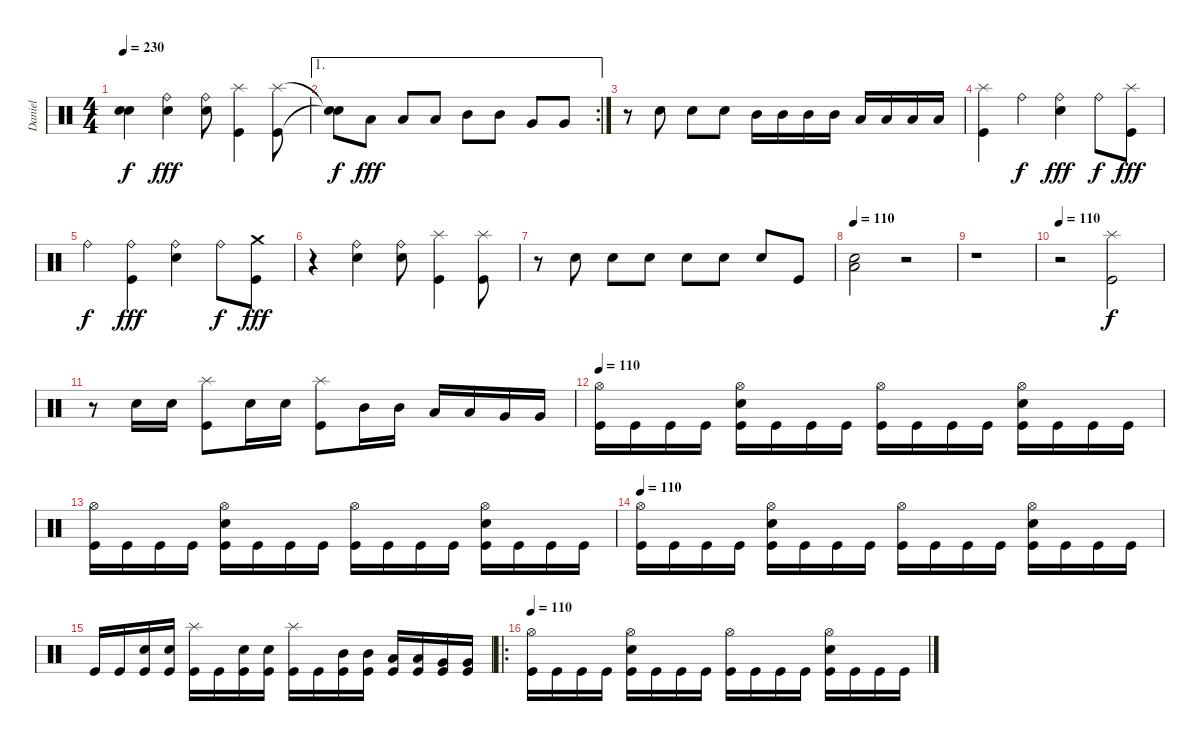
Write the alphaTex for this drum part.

\track ("Daniel" "Daniel") {instrument percussion}
\staff {score}
\articulation defaults
\ts (4 4)
\tempo 230
\clef neutral
\ks c
("Snare (hit)"{t} "Snare (hit)"{t}).4{dy f} ("Electric Snare (hit)" "Ride (bell)").4{dy fff} ("Electric Snare (hit)" "Ride (bell)").8 ("Kick (hit)" "Splash (hit)").4 ("Kick (hit)" "Splash (hit)").8 |
\ae 1
\rc 2
("Snare (hit)"{t} "Snare (hit)"{t}).8{dy f} "Low Tom (hit)".8{dy fff} "Low Tom (hit)".8 "Low Tom (hit)".8 "Mid Tom (hit)".8 "Mid Tom (hit)".8 "Very Low Tom (hit)".8 "Very Low Tom (hit)".8 |
r.8 "Electric Snare (hit)".8 "Electric Snare (hit)".8 "Electric Snare (hit)".8 "Mid Tom (hit)".16 "Mid Tom (hit)".16 "Mid Tom (hit)".16 "Mid Tom (hit)".16 "Low Tom (hit)".16 "Low Tom (hit)".16 "Low Tom (hit)".16 "Low Tom (hit)".16 |
("Kick (hit)" "Splash (hit)").4 "Ride (bell)".4{dy f} ("Electric Snare (hit)" "Ride (bell)").4{dy fff} "Ride (bell)".8{dy f} ("Kick (hit)" "Splash (hit)").8{dy fff} |
"Ride (bell)".4{dy f} ("Kick (hit)" "Ride (bell)").4{dy fff} ("Electric Snare (hit)" "Ride (bell)").4 "Ride (bell)".8{dy f} ("Kick (hit)" "Crash medium (hit)").8{dy fff} |
r.4 ("Electric Snare (hit)" "Ride (bell)").4 ("Electric Snare (hit)" "Ride (bell)").8 ("Kick (hit)" "Splash (hit)").4 ("Kick (hit)" "Splash (hit)").8 |
r.8 "Electric Snare (hit)".8 "Electric Snare (hit)".8 "Electric Snare (hit)".8 "Electric Snare (hit)".8 "Electric Snare (hit)".8 "Electric Snare (hit)".8 "Kick (hit)".8 |
\tempo 110
("Electric Snare (hit)" "Low Floor Tom (hit)").2 r.2 |
r.1 |
\tempo 110
r.2 ("Kick (hit)" "Splash (hit)").2{dy f} |
r.8 "Electric Snare (hit)".16 "Electric Snare (hit)".16 ("Kick (hit)" "Splash (hit)").8 "Electric Snare (hit)".16 "Electric Snare (hit)".16 ("Kick (hit)" "Splash (hit)").8 "Mid Tom (hit)".16 "Mid Tom (hit)".16 "Low Tom (hit)".16 "Low Tom (hit)".16 "Very Low Tom (hit)".16 "Very Low Tom (hit)".16 |
\tempo 110
("Kick (hit)" "Hi-Hat (open)").16 "Kick (hit)".16 "Kick (hit)".16 "Kick (hit)".16 ("Kick (hit)" "Electric Snare (hit)" "Hi-Hat (open)").16 "Kick (hit)".16 "Kick (hit)".16 "Kick (hit)".16 ("Kick (hit)" "Hi-Hat (open)").16 "Kick (hit)".16 "Kick (hit)".16 "Kick (hit)".16 ("Kick (hit)" "Electric Snare (hit)" "Hi-Hat (open)").16 "Kick (hit)".16 "Kick (hit)".16 "Kick (hit)".16 |
("Kick (hit)" "Hi-Hat (open)").16 "Kick (hit)".16 "Kick (hit)".16 "Kick (hit)".16 ("Kick (hit)" "Electric Snare (hit)" "Hi-Hat (open)").16 "Kick (hit)".16 "Kick (hit)".16 "Kick (hit)".16 ("Kick (hit)" "Hi-Hat (open)").16 "Kick (hit)".16 "Kick (hit)".16 "Kick (hit)".16 ("Kick (hit)" "Electric Snare (hit)" "Hi-Hat (open)").16 "Kick (hit)".16 "Kick (hit)".16 "Kick (hit)".16 |
\tempo 110
("Kick (hit)" "Hi-Hat (open)").16 "Kick (hit)".16 "Kick (hit)".16 "Kick (hit)".16 ("Kick (hit)" "Electric Snare (hit)" "Hi-Hat (open)").16 "Kick (hit)".16 "Kick (hit)".16 "Kick (hit)".16 ("Kick (hit)" "Hi-Hat (open)").16 "Kick (hit)".16 "Kick (hit)".16 "Kick (hit)".16 ("Kick (hit)" "Electric Snare (hit)" "Hi-Hat (open)").16 "Kick (hit)".16 "Kick (hit)".16 "Kick (hit)".16 |
"Kick (hit)".16 "Kick (hit)".16 ("Kick (hit)" "Electric Snare (hit)").16 ("Kick (hit)" "Electric Snare (hit)").16 ("Kick (hit)" "Splash (hit)").16 "Kick (hit)".16 ("Kick (hit)" "Electric Snare (hit)").16 ("Kick (hit)" "Electric Snare (hit)").16 ("Kick (hit)" "Splash (hit)").16 "Kick (hit)".16 ("Kick (hit)" "Mid Tom (hit)").16 ("Kick (hit)" "Mid Tom (hit)").16 ("Kick (hit)" "Low Tom (hit)").16 ("Kick (hit)" "Low Tom (hit)").16 ("Kick (hit)" "Very Low Tom (hit)").16 ("Kick (hit)" "Very Low Tom (hit)").16 |
\ro
\tempo 110
("Kick (hit)" "Hi-Hat (open)").16 "Kick (hit)".16 "Kick (hit)".16 "Kick (hit)".16 ("Kick (hit)" "Electric Snare (hit)" "Hi-Hat (open)").16 "Kick (hit)".16 "Kick (hit)".16 "Kick (hit)".16 ("Kick (hit)" "Hi-Hat (open)").16 "Kick (hit)".16 "Kick (hit)".16 "Kick (hit)".16 ("Kick (hit)" "Electric Snare (hit)" "Hi-Hat (open)").16 "Kick (hit)".16 "Kick (hit)".16 "Kick (hit)".16
